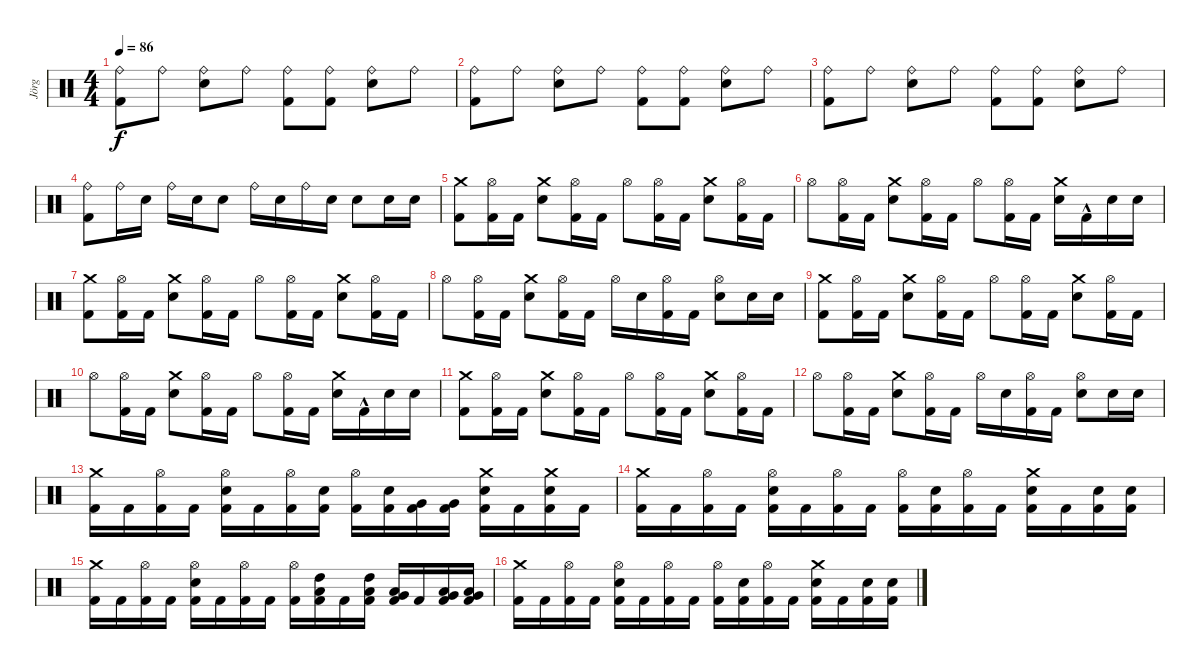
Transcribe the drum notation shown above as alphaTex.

\track ("Jörg" "Jörg") {instrument percussion}
\staff {score}
\articulation defaults
\ts (4 4)
\tempo 86
\clef neutral
\ks c
("Kick (hit) 2" "Ride (bell)").8{dy f} "Ride (bell)".8 ("Snare (hit) 2" "Ride (bell)").8 "Ride (bell)".8 ("Kick (hit) 2" "Ride (bell)").8 ("Kick (hit) 2" "Ride (bell)").8 ("Snare (hit) 2" "Ride (bell)").8 "Ride (bell)".8 |
("Kick (hit) 2" "Ride (bell)").8 "Ride (bell)".8 ("Snare (hit) 2" "Ride (bell)").8 "Ride (bell)".8 ("Kick (hit) 2" "Ride (bell)").8 ("Kick (hit) 2" "Ride (bell)").8 ("Snare (hit) 2" "Ride (bell)").8 "Ride (bell)".8 |
("Kick (hit) 2" "Ride (bell)").8 "Ride (bell)".8 ("Snare (hit) 2" "Ride (bell)").8 "Ride (bell)".8 ("Kick (hit) 2" "Ride (bell)").8 ("Kick (hit) 2" "Ride (bell)").8 ("Snare (hit) 2" "Ride (bell)").8 "Ride (bell)".8 |
("Kick (hit) 2" "Ride (bell)").8 "Ride (bell)".16 "Snare (hit) 2".16 "Ride (bell)".16 "Snare (hit) 2".16 "Snare (hit) 2".8 "Ride (bell)".16 "Snare (hit) 2".16 "Ride (bell)".16 "Snare (hit) 2".16 "Snare (hit) 2".8 "Snare (hit) 2".16 "Snare (hit) 2".16 |
("Kick (hit) 2" "Crash medium (hit)").8 ("Kick (hit) 2" "Hi-Hat (open)").16 "Kick (hit) 2".16 ("Snare (hit) 2" "Crash medium (hit)").8 ("Kick (hit) 2" "Hi-Hat (open)").16 "Kick (hit) 2".16 "Hi-Hat (open)".8 ("Kick (hit) 2" "Hi-Hat (open)").16 "Kick (hit) 2".16 ("Snare (hit) 2" "Crash medium (hit)").8 ("Kick (hit) 2" "Hi-Hat (open)").16 "Kick (hit) 2".16 |
"Hi-Hat (open)".8 ("Kick (hit) 2" "Hi-Hat (open)").16 "Kick (hit) 2".16 ("Snare (hit) 2" "Crash medium (hit)").8 ("Kick (hit) 2" "Hi-Hat (open)").16 "Kick (hit) 2".16 "Hi-Hat (open)".8 ("Kick (hit) 2" "Hi-Hat (open)").16 "Kick (hit) 2".16 ("Snare (hit) 2" "Crash medium (hit)").16 "Kick (hit) 2"{hac}.16 "Snare (hit) 2".16 "Snare (hit) 2".16 |
("Kick (hit) 2" "Crash medium (hit)").8 ("Kick (hit) 2" "Hi-Hat (open)").16 "Kick (hit) 2".16 ("Snare (hit) 2" "Crash medium (hit)").8 ("Kick (hit) 2" "Hi-Hat (open)").16 "Kick (hit) 2".16 "Hi-Hat (open)".8 ("Kick (hit) 2" "Hi-Hat (open)").16 "Kick (hit) 2".16 ("Snare (hit) 2" "Crash medium (hit)").8 ("Kick (hit) 2" "Hi-Hat (open)").16 "Kick (hit) 2".16 |
"Hi-Hat (open)".8 ("Kick (hit) 2" "Hi-Hat (open)").16 "Kick (hit) 2".16 ("Snare (hit) 2" "Crash medium (hit)").8 ("Kick (hit) 2" "Hi-Hat (open)").16 "Kick (hit) 2".16 "Hi-Hat (open)".16 "Snare (hit) 2".16 ("Kick (hit) 2" "Hi-Hat (open)").16 "Kick (hit) 2".16 ("Snare (hit) 2" "Hi-Hat (open)").8 "Snare (hit) 2".16 "Snare (hit) 2".16 |
("Kick (hit) 2" "Crash medium (hit)").8 ("Kick (hit) 2" "Hi-Hat (open)").16 "Kick (hit) 2".16 ("Snare (hit) 2" "Crash medium (hit)").8 ("Kick (hit) 2" "Hi-Hat (open)").16 "Kick (hit) 2".16 "Hi-Hat (open)".8 ("Kick (hit) 2" "Hi-Hat (open)").16 "Kick (hit) 2".16 ("Snare (hit) 2" "Crash medium (hit)").8 ("Kick (hit) 2" "Hi-Hat (open)").16 "Kick (hit) 2".16 |
"Hi-Hat (open)".8 ("Kick (hit) 2" "Hi-Hat (open)").16 "Kick (hit) 2".16 ("Snare (hit) 2" "Crash medium (hit)").8 ("Kick (hit) 2" "Hi-Hat (open)").16 "Kick (hit) 2".16 "Hi-Hat (open)".8 ("Kick (hit) 2" "Hi-Hat (open)").16 "Kick (hit) 2".16 ("Snare (hit) 2" "Crash medium (hit)").16 "Kick (hit) 2"{hac}.16 "Snare (hit) 2".16 "Snare (hit) 2".16 |
("Kick (hit) 2" "Crash medium (hit)").8 ("Kick (hit) 2" "Hi-Hat (open)").16 "Kick (hit) 2".16 ("Snare (hit) 2" "Crash medium (hit)").8 ("Kick (hit) 2" "Hi-Hat (open)").16 "Kick (hit) 2".16 "Hi-Hat (open)".8 ("Kick (hit) 2" "Hi-Hat (open)").16 "Kick (hit) 2".16 ("Snare (hit) 2" "Crash medium (hit)").8 ("Kick (hit) 2" "Hi-Hat (open)").16 "Kick (hit) 2".16 |
"Hi-Hat (open)".8 ("Kick (hit) 2" "Hi-Hat (open)").16 "Kick (hit) 2".16 ("Snare (hit) 2" "Crash medium (hit)").8 ("Kick (hit) 2" "Hi-Hat (open)").16 "Kick (hit) 2".16 "Hi-Hat (open)".16 "Snare (hit) 2".16 ("Kick (hit) 2" "Hi-Hat (open)").16 "Kick (hit) 2".16 ("Snare (hit) 2" "Hi-Hat (open)").8 "Snare (hit) 2".16 "Snare (hit) 2".16 |
("Crash medium (hit)" "Kick (hit) 2").16 "Kick (hit) 2".16 ("Hi-Hat (open)" "Kick (hit) 2").16 "Kick (hit) 2".16 ("Hi-Hat (open)" "Snare (hit) 2" "Kick (hit) 2").16 "Kick (hit) 2".16 ("Hi-Hat (open)" "Kick (hit) 2").16 ("Snare (hit) 2" "Kick (hit) 2").16 ("Hi-Hat (open)" "Kick (hit) 2").16 ("Snare (hit) 2" "Kick (hit) 2").16 ("Very Low Tom (hit)" "Kick (hit) 2").16 ("Very Low Tom (hit)" "Kick (hit) 2").16 ("Snare (hit) 2" "Crash medium (hit)" "Kick (hit) 2").16 "Kick (hit) 2".16 ("Snare (hit) 2" "Crash medium (hit)" "Kick (hit) 2").16 "Kick (hit) 2".16 |
("Crash medium (hit)" "Kick (hit) 2").16 "Kick (hit) 2".16 ("Hi-Hat (open)" "Kick (hit) 2").16 "Kick (hit) 2".16 ("Snare (hit) 2" "Hi-Hat (open)" "Kick (hit) 2").16 "Kick (hit) 2".16 ("Hi-Hat (open)" "Kick (hit) 2").16 "Kick (hit) 2".16 ("Hi-Hat (open)" "Kick (hit) 2").16 ("Snare (hit) 2" "Kick (hit) 2").16 ("Hi-Hat (open)" "Kick (hit) 2").16 "Kick (hit) 2".16 ("Snare (hit) 2" "Crash medium (hit)" "Kick (hit) 2").16 "Kick (hit) 2".16 ("Snare (hit) 2" "Kick (hit) 2").16 ("Snare (hit) 2" "Kick (hit) 2").16 |
("Crash medium (hit)" "Kick (hit) 2").16 "Kick (hit) 2".16 ("Hi-Hat (open)" "Kick (hit) 2").16 "Kick (hit) 2".16 ("Snare (hit) 2" "Hi-Hat (open)" "Kick (hit) 2").16 "Kick (hit) 2".16 ("Hi-Hat (open)" "Kick (hit) 2").16 "Kick (hit) 2".16 ("Hi-Hat (open)" "Kick (hit) 2").16 ("Low Tom (hit)" "High Tom (hit)" "Kick (hit) 2").16 "Kick (hit) 2".16 ("Low Tom (hit)" "High Tom (hit)" "Kick (hit) 2").16 ("Low Tom (hit)" "Very Low Tom (hit)" "Kick (hit) 2").16 "Kick (hit) 2".16 ("Low Tom (hit)" "Very Low Tom (hit)" "Kick (hit) 2").16 ("Low Tom (hit)" "Very Low Tom (hit)" "Kick (hit) 2").16 |
("Crash medium (hit)" "Kick (hit) 2").16 "Kick (hit) 2".16 ("Hi-Hat (open)" "Kick (hit) 2").16 "Kick (hit) 2".16 ("Snare (hit) 2" "Hi-Hat (open)" "Kick (hit) 2").16 "Kick (hit) 2".16 ("Hi-Hat (open)" "Kick (hit) 2").16 "Kick (hit) 2".16 ("Hi-Hat (open)" "Kick (hit) 2").16 ("Snare (hit) 2" "Kick (hit) 2").16 ("Hi-Hat (open)" "Kick (hit) 2").16 "Kick (hit) 2".16 ("Snare (hit) 2" "Crash medium (hit)" "Kick (hit) 2").16 "Kick (hit) 2".16 ("Snare (hit) 2" "Kick (hit) 2").16 ("Snare (hit) 2" "Kick (hit) 2").16
